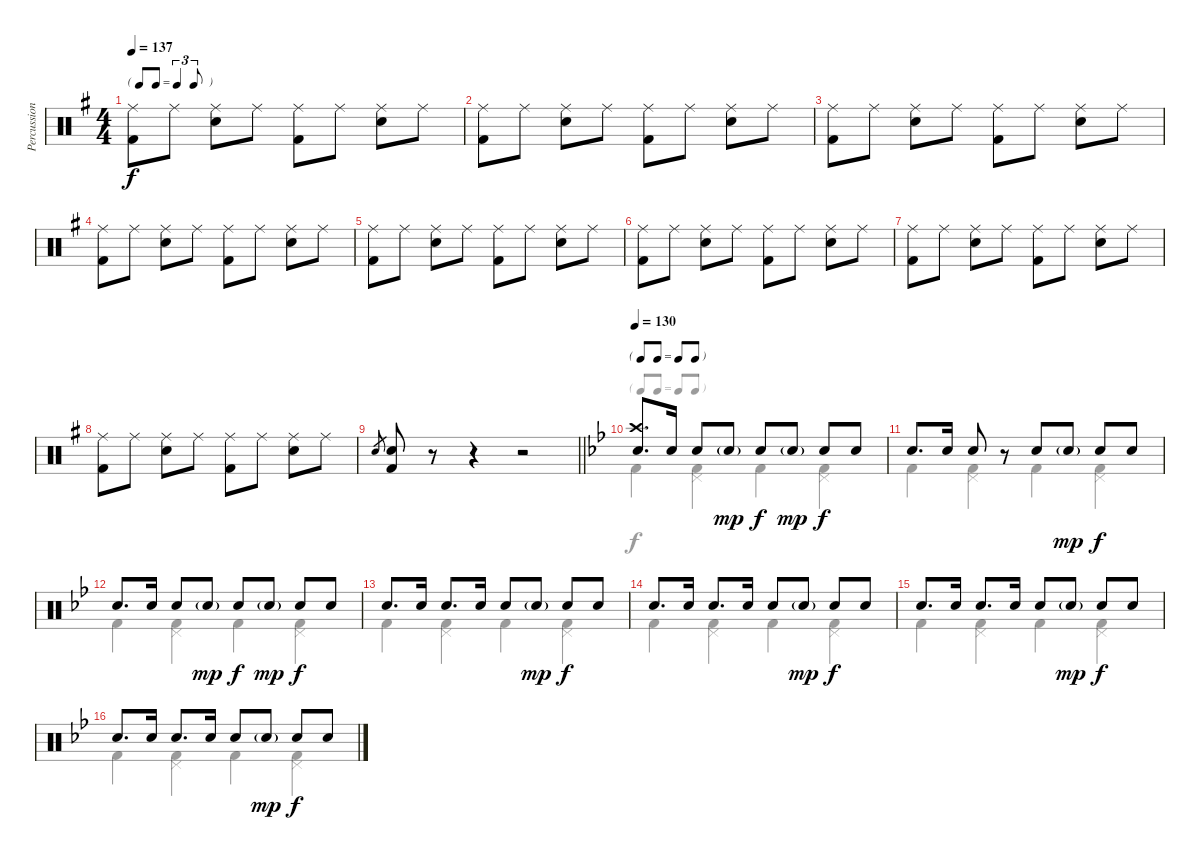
\track ("Percussion" "Percussion") {instrument percussion}
\staff {score}
\articulation defaults
\voice
\ts (4 4)
\tf triplet8th
\tempo 137
\clef neutral
\ks g
("Ride (middle)" "Kick (hit) 2").8{dy f} "Ride (middle)".8 ("Ride (middle)" "Snare (hit) 2").8 "Ride (middle)".8 ("Ride (middle)" "Kick (hit) 2").8 "Ride (middle)".8 ("Ride (middle)" "Snare (hit) 2").8 "Ride (middle)".8 |
("Ride (middle)" "Kick (hit) 2").8 "Ride (middle)".8 ("Ride (middle)" "Snare (hit) 2").8 "Ride (middle)".8 ("Ride (middle)" "Kick (hit) 2").8 "Ride (middle)".8 ("Ride (middle)" "Snare (hit) 2").8 "Ride (middle)".8 |
("Ride (middle)" "Kick (hit) 2").8 "Ride (middle)".8 ("Ride (middle)" "Snare (hit) 2").8 "Ride (middle)".8 ("Ride (middle)" "Kick (hit) 2").8 "Ride (middle)".8 ("Ride (middle)" "Snare (hit) 2").8 "Ride (middle)".8 |
("Ride (middle)" "Kick (hit) 2").8 "Ride (middle)".8 ("Ride (middle)" "Snare (hit) 2").8 "Ride (middle)".8 ("Ride (middle)" "Kick (hit) 2").8 "Ride (middle)".8 ("Ride (middle)" "Snare (hit) 2").8 "Ride (middle)".8 |
("Ride (middle)" "Kick (hit) 2").8 "Ride (middle)".8 ("Ride (middle)" "Snare (hit) 2").8 "Ride (middle)".8 ("Ride (middle)" "Kick (hit) 2").8 "Ride (middle)".8 ("Ride (middle)" "Snare (hit) 2").8 "Ride (middle)".8 |
("Ride (middle)" "Kick (hit) 2").8 "Ride (middle)".8 ("Ride (middle)" "Snare (hit) 2").8 "Ride (middle)".8 ("Ride (middle)" "Kick (hit) 2").8 "Ride (middle)".8 ("Ride (middle)" "Snare (hit) 2").8 "Ride (middle)".8 |
("Ride (middle)" "Kick (hit) 2").8 "Ride (middle)".8 ("Ride (middle)" "Snare (hit) 2").8 "Ride (middle)".8 ("Ride (middle)" "Kick (hit) 2").8 "Ride (middle)".8 ("Ride (middle)" "Snare (hit) 2").8 "Ride (middle)".8 |
("Ride (middle)" "Kick (hit) 2").8 "Ride (middle)".8 ("Ride (middle)" "Snare (hit) 2").8 "Ride (middle)".8 ("Ride (middle)" "Kick (hit) 2").8 "Ride (middle)".8 ("Ride (middle)" "Snare (hit) 2").8 "Ride (middle)".8 |
\barLineRight lightlight "Snare (hit) 2".8{gr}
("Snare (hit) 2" "Kick (hit) 2").8 r.8 r.4 r.2 |
\tf none
\tempo 130
\ks gminor
("Crash high (hit)" "Snare (hit) 2").8{d} "Snare (hit) 2".16 "Snare (hit) 2".8 "Snare (hit) 2"{g}.8{dy mp} "Snare (hit) 2".8{dy f} "Snare (hit) 2"{g}.8{dy mp} "Snare (hit) 2".8{dy f} "Snare (hit) 2".8 |
"Snare (hit) 2".8{d} "Snare (hit) 2".16 "Snare (hit) 2".8 r.8 "Snare (hit) 2".8 "Snare (hit) 2"{g}.8{dy mp} "Snare (hit) 2".8{dy f} "Snare (hit) 2".8 |
"Snare (hit) 2".8{d} "Snare (hit) 2".16 "Snare (hit) 2".8 "Snare (hit) 2"{g}.8{dy mp} "Snare (hit) 2".8{dy f} "Snare (hit) 2"{g}.8{dy mp} "Snare (hit) 2".8{dy f} "Snare (hit) 2".8 |
"Snare (hit) 2".8{d} "Snare (hit) 2".16 "Snare (hit) 2".8{d} "Snare (hit) 2".16 "Snare (hit) 2".8 "Snare (hit) 2"{g}.8{dy mp} "Snare (hit) 2".8{dy f} "Snare (hit) 2".8 |
"Snare (hit) 2".8{d} "Snare (hit) 2".16 "Snare (hit) 2".8{d} "Snare (hit) 2".16 "Snare (hit) 2".8 "Snare (hit) 2"{g}.8{dy mp} "Snare (hit) 2".8{dy f} "Snare (hit) 2".8 |
"Snare (hit) 2".8{d} "Snare (hit) 2".16 "Snare (hit) 2".8{d} "Snare (hit) 2".16 "Snare (hit) 2".8 "Snare (hit) 2"{g}.8{dy mp} "Snare (hit) 2".8{dy f} "Snare (hit) 2".8 |
"Snare (hit) 2".8{d} "Snare (hit) 2".16 "Snare (hit) 2".8{d} "Snare (hit) 2".16 "Snare (hit) 2".8 "Snare (hit) 2"{g}.8{dy mp} "Snare (hit) 2".8{dy f} "Snare (hit) 2".8
\voice
\clef neutral
\ottava regular
\simile none
\ks g
|
|
|
|
|
|
|
|
\barLineRight lightlight
|
\ks gminor "Kick (hit) 2".4
("Kick (hit) 2" "Pedal Hi-Hat (hit)").4 "Kick (hit) 2".4 ("Kick (hit) 2" "Pedal Hi-Hat (hit)").4 |
"Kick (hit) 2".4 ("Kick (hit) 2" "Pedal Hi-Hat (hit)").4 "Kick (hit) 2".4 ("Kick (hit) 2" "Pedal Hi-Hat (hit)").4 |
"Kick (hit) 2".4 ("Kick (hit) 2" "Pedal Hi-Hat (hit)").4 "Kick (hit) 2".4 ("Kick (hit) 2" "Pedal Hi-Hat (hit)").4 |
"Kick (hit) 2".4 ("Kick (hit) 2" "Pedal Hi-Hat (hit)").4 "Kick (hit) 2".4 ("Kick (hit) 2" "Pedal Hi-Hat (hit)").4 |
"Kick (hit) 2".4 ("Kick (hit) 2" "Pedal Hi-Hat (hit)").4 "Kick (hit) 2".4 ("Kick (hit) 2" "Pedal Hi-Hat (hit)").4 |
"Kick (hit) 2".4 ("Kick (hit) 2" "Pedal Hi-Hat (hit)").4 "Kick (hit) 2".4 ("Kick (hit) 2" "Pedal Hi-Hat (hit)").4 |
"Kick (hit) 2".4 ("Kick (hit) 2" "Pedal Hi-Hat (hit)").4 "Kick (hit) 2".4 ("Kick (hit) 2" "Pedal Hi-Hat (hit)").4
